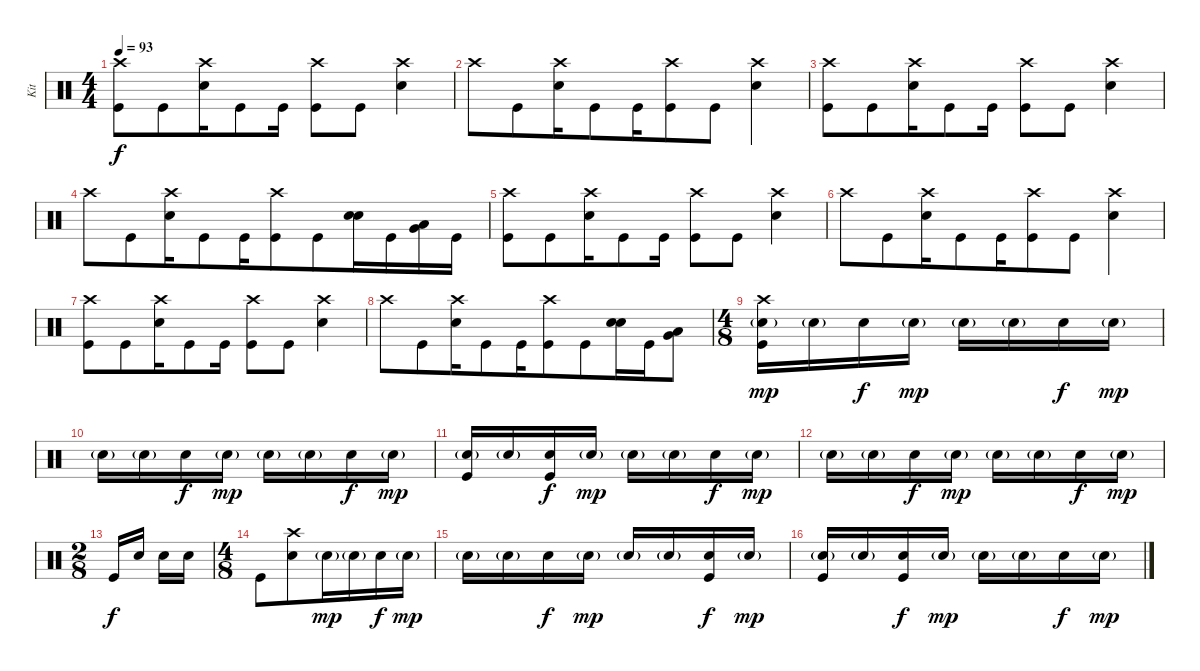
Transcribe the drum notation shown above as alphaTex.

\track ("Kit" "Kit") {instrument percussion}
\staff {score}
\articulation defaults
\ts (4 4)
\tempo 93
\clef neutral
\ks aminor
("Crash high (hit)" "Kick (hit)").8{dy f beam merge} "Kick (hit)".8{beam merge} ("Crash high (hit)" "Electric Snare (hit)").16 "Kick (hit)".8 "Kick (hit)".16 ("Crash high (hit)" "Kick (hit)").8 "Kick (hit)".8 ("Crash high (hit)" "Electric Snare (hit)").4 |
"Crash high (hit)".8 "Kick (hit)".8{beam merge} ("Crash high (hit)" "Electric Snare (hit)").16{beam merge} "Kick (hit)".8{beam merge} "Kick (hit)".16{beam merge} ("Crash high (hit)" "Kick (hit)").8{beam merge} "Kick (hit)".8{beam merge} ("Crash high (hit)" "Electric Snare (hit)").4 |
("Crash high (hit)" "Kick (hit)").8{beam merge} "Kick (hit)".8{beam merge} ("Crash high (hit)" "Electric Snare (hit)").16 "Kick (hit)".8 "Kick (hit)".16 ("Crash high (hit)" "Kick (hit)").8 "Kick (hit)".8 ("Crash high (hit)" "Electric Snare (hit)").4 |
"Crash high (hit)".8 "Kick (hit)".8{beam merge} ("Crash high (hit)" "Electric Snare (hit)").16{beam merge} "Kick (hit)".8{beam merge} "Kick (hit)".16{beam merge} ("Crash high (hit)" "Kick (hit)").8{beam merge} "Kick (hit)".8{beam merge} ("Electric Snare (hit)" "Electric Snare (hit)").16 "Kick (hit)".16 ("Low Tom (hit)" "Very Low Tom (hit)").16{beam merge} "Kick (hit)".16 |
("Crash high (hit)" "Kick (hit)").8{beam merge} "Kick (hit)".8{beam merge} ("Crash high (hit)" "Electric Snare (hit)").16 "Kick (hit)".8 "Kick (hit)".16 ("Crash high (hit)" "Kick (hit)").8 "Kick (hit)".8 ("Crash high (hit)" "Electric Snare (hit)").4 |
"Crash high (hit)".8 "Kick (hit)".8{beam merge} ("Crash high (hit)" "Electric Snare (hit)").16{beam merge} "Kick (hit)".8{beam merge} "Kick (hit)".16{beam merge} ("Crash high (hit)" "Kick (hit)").8{beam merge} "Kick (hit)".8{beam merge} ("Crash high (hit)" "Electric Snare (hit)").4 |
("Crash high (hit)" "Kick (hit)").8{beam merge} "Kick (hit)".8{beam merge} ("Crash high (hit)" "Electric Snare (hit)").16 "Kick (hit)".8 "Kick (hit)".16 ("Crash high (hit)" "Kick (hit)").8 "Kick (hit)".8 ("Crash high (hit)" "Electric Snare (hit)").4 |
"Crash high (hit)".8 "Kick (hit)".8{beam merge} ("Crash high (hit)" "Electric Snare (hit)").16{beam merge} "Kick (hit)".8{beam merge} "Kick (hit)".16{beam merge} ("Crash high (hit)" "Kick (hit)").8{beam merge} "Kick (hit)".8{beam merge} ("Electric Snare (hit)" "Electric Snare (hit)").16 "Kick (hit)".16 ("Low Tom (hit)" "Very Low Tom (hit)").8 |
\ts (4 8)
("Crash high (hit)" "Electric Snare (hit)"{g} "Kick (hit)").16{dy mp} "Electric Snare (hit)"{g}.16 "Electric Snare (hit)".16{dy f} "Electric Snare (hit)"{g}.16{dy mp} "Electric Snare (hit)"{g}.16 "Electric Snare (hit)"{g}.16 "Electric Snare (hit)".16{dy f} "Electric Snare (hit)"{g}.16{dy mp} |
"Electric Snare (hit)"{g}.16 "Electric Snare (hit)"{g}.16 "Electric Snare (hit)".16{dy f} "Electric Snare (hit)"{g}.16{dy mp} "Electric Snare (hit)"{g}.16 "Electric Snare (hit)"{g}.16 "Electric Snare (hit)".16{dy f} "Electric Snare (hit)"{g}.16{dy mp} |
("Electric Snare (hit)"{g} "Kick (hit)").16 "Electric Snare (hit)"{g}.16 ("Electric Snare (hit)" "Kick (hit)").16{dy f} "Electric Snare (hit)"{g}.16{dy mp} "Electric Snare (hit)"{g}.16 "Electric Snare (hit)"{g}.16 "Electric Snare (hit)".16{dy f} "Electric Snare (hit)"{g}.16{dy mp} |
"Electric Snare (hit)"{g}.16 "Electric Snare (hit)"{g}.16 "Electric Snare (hit)".16{dy f} "Electric Snare (hit)"{g}.16{dy mp} "Electric Snare (hit)"{g}.16 "Electric Snare (hit)"{g}.16 "Electric Snare (hit)".16{dy f} "Electric Snare (hit)"{g}.16{dy mp} |
\ts (2 8)
"Kick (hit)".16{dy f beam merge} "Electric Snare (hit)".16 "Electric Snare (hit)".16{beam merge} "Electric Snare (hit)".16 |
\ts (4 8)
"Kick (hit)".8{beam merge} ("Crash high (hit)" "Electric Snare (hit)").8{beam merge} "Electric Snare (hit)"{g}.16{dy mp beam merge} "Electric Snare (hit)"{g}.16{beam merge} "Electric Snare (hit)".16{dy f beam merge} "Electric Snare (hit)"{g}.16{dy mp} |
"Electric Snare (hit)"{g}.16 "Electric Snare (hit)"{g}.16 "Electric Snare (hit)".16{dy f} "Electric Snare (hit)"{g}.16{dy mp} "Electric Snare (hit)"{g}.16 "Electric Snare (hit)"{g}.16 ("Electric Snare (hit)" "Kick (hit)").16{dy f} "Electric Snare (hit)"{g}.16{dy mp} |
("Electric Snare (hit)"{g} "Kick (hit)").16 "Electric Snare (hit)"{g}.16 ("Electric Snare (hit)" "Kick (hit)").16{dy f} "Electric Snare (hit)"{g}.16{dy mp} "Electric Snare (hit)"{g}.16 "Electric Snare (hit)"{g}.16 "Electric Snare (hit)".16{dy f} "Electric Snare (hit)"{g}.16{dy mp}
